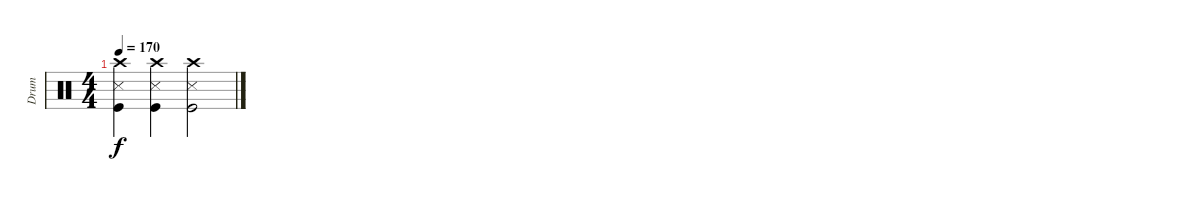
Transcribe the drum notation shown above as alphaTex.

\track ("Drum" "Drum") {instrument percussion}
\staff {score}
\articulation defaults
\ts (4 4)
\tempo 170
\clef neutral
\ks c
("Crash high (hit)" "Snare (side stick) 3" "Kick (hit)").4{dy f} ("Crash high (hit)" "Snare (side stick) 3" "Kick (hit)").4 ("Crash high (hit)" "Snare (side stick) 3" "Kick (hit)").2
